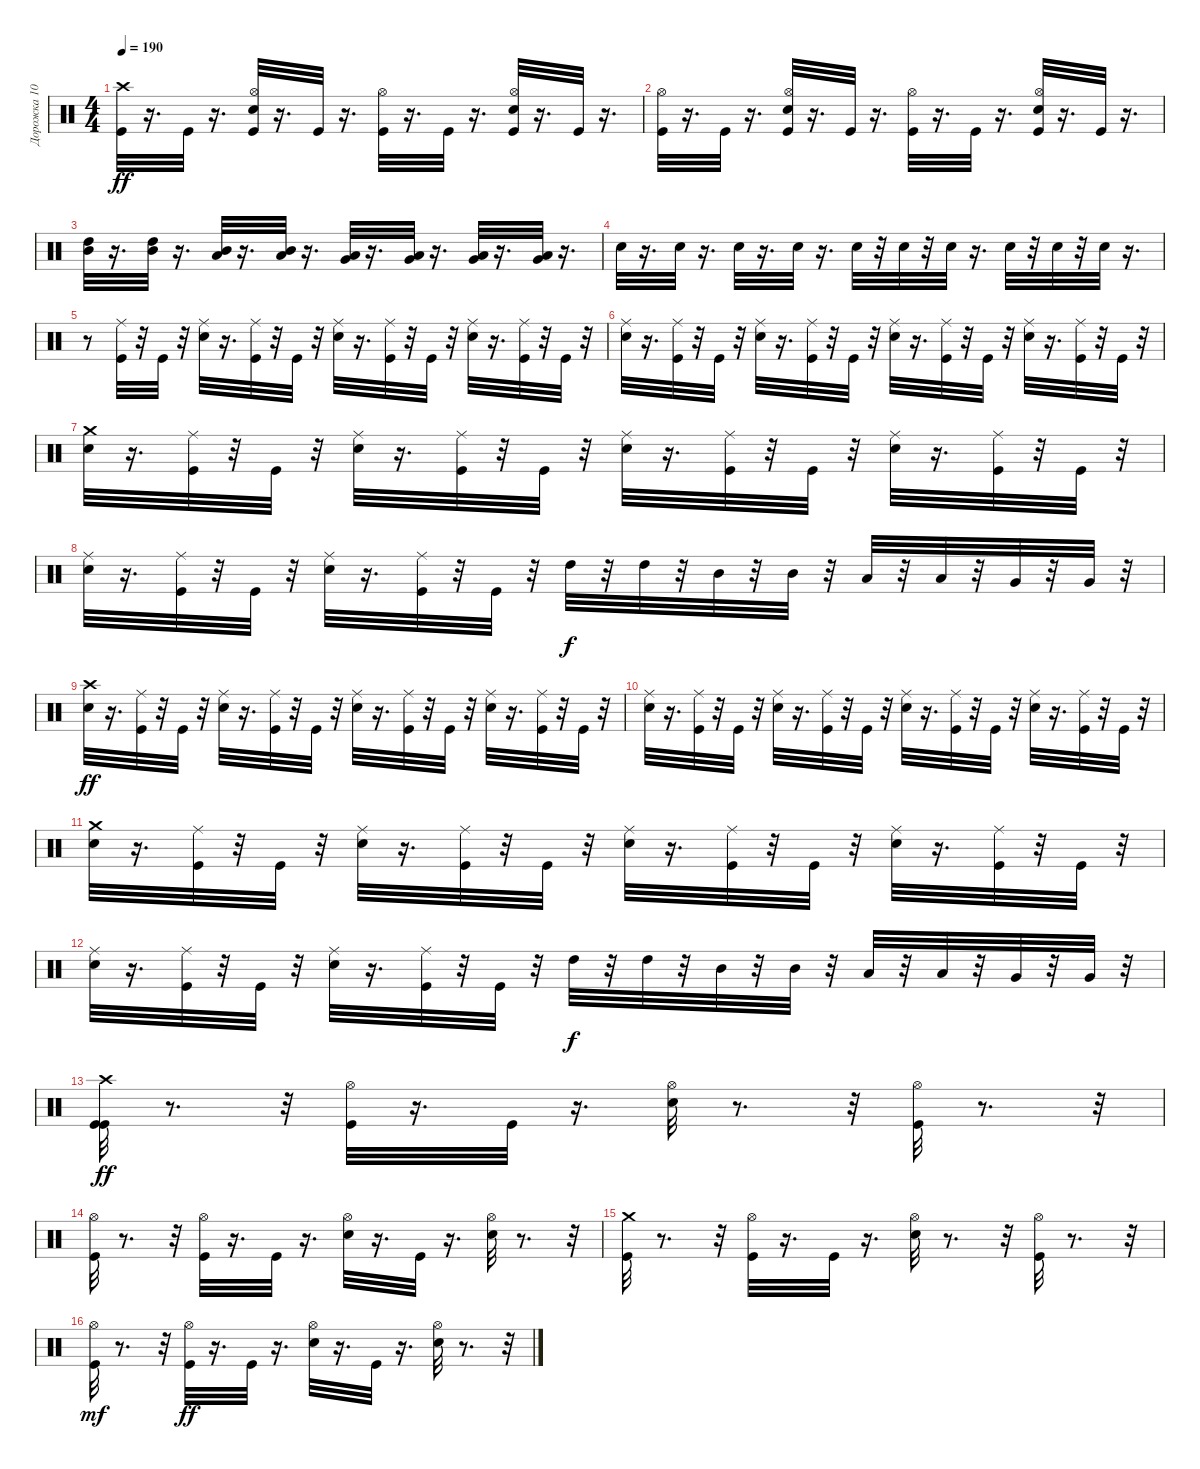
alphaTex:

\track ("Дорожка 10" "Дорожка 10") {instrument percussion}
\staff {score}
\articulation defaults
\ts (4 4)
\tempo 190
\clef neutral
\ks c
("Crash high (hit)" "Kick (hit)").32{dy ff} r.16{d} "Kick (hit)".32 r.16{d} ("Hi-Hat (open)" "Kick (hit)" "Snare (hit) 2").32 r.16{d} "Kick (hit)".32 r.16{d} ("Hi-Hat (open)" "Kick (hit)").32 r.16{d} "Kick (hit)".32 r.16{d} ("Hi-Hat (open)" "Snare (hit) 2" "Kick (hit)").32 r.16{d} "Kick (hit)".32 r.16{d} |
("Hi-Hat (open)" "Kick (hit)").32 r.16{d} "Kick (hit)".32 r.16{d} ("Hi-Hat (open)" "Snare (hit) 2" "Kick (hit)").32 r.16{d} "Kick (hit)".32 r.16{d} ("Hi-Hat (open)" "Kick (hit)").32 r.16{d} "Kick (hit)".32 r.16{d} ("Hi-Hat (open)" "Snare (hit) 2" "Kick (hit)").32 r.16{d} "Kick (hit)".32 r.16{d} |
("Mid Tom (hit)" "High Tom (hit)").32 r.16{d} ("Mid Tom (hit)" "High Tom (hit)").32 r.16{d} ("Low Tom (hit)" "Mid Tom (hit)").32 r.16{d} ("Mid Tom (hit)" "Low Tom (hit)").32 r.16{d} ("Very Low Tom (hit)" "Low Tom (hit)").32 r.16{d} ("Very Low Tom (hit)" "Low Tom (hit)").32 r.16{d} ("Very Low Tom (hit)" "Low Tom (hit)").32 r.16{d} ("Very Low Tom (hit)" "Low Tom (hit)").32 r.16{d} |
"Snare (hit) 2".32 r.16{d} "Snare (hit) 2".32 r.16{d} "Snare (hit) 2".32 r.16{d} "Snare (hit) 2".32 r.16{d} "Snare (hit) 2".32 r.32 "Snare (hit) 2".32 r.32 "Snare (hit) 2".32 r.16{d} "Snare (hit) 2".32 r.32 "Snare (hit) 2".32 r.32 "Snare (hit) 2".32 r.16{d} |
r.8 ("Ride (middle)" "Kick (hit)").32 r.32 "Kick (hit)".32 r.32 ("Ride (middle)" "Snare (hit) 2").32 r.16{d} ("Ride (middle)" "Kick (hit)").32 r.32 "Kick (hit)".32 r.32 ("Ride (middle)" "Snare (hit) 2").32 r.16{d} ("Kick (hit)" "Ride (middle)").32 r.32 "Kick (hit)".32 r.32 ("Ride (middle)" "Snare (hit) 2").32 r.16{d} ("Ride (middle)" "Kick (hit)").32 r.32 "Kick (hit)".32 r.32 |
("Snare (hit) 2" "Ride (middle)").32 r.16{d} ("Ride (middle)" "Kick (hit)").32 r.32 "Kick (hit)".32 r.32 ("Ride (middle)" "Snare (hit) 2").32 r.16{d} ("Ride (middle)" "Kick (hit)").32 r.32 "Kick (hit)".32 r.32 ("Ride (middle)" "Snare (hit) 2").32 r.16{d} ("Ride (middle)" "Kick (hit)").32 r.32 "Kick (hit)".32 r.32 ("Ride (middle)" "Snare (hit) 2").32 r.16{d} ("Ride (middle)" "Kick (hit)").32 r.32 "Kick (hit)".32 r.32 |
("Crash medium (hit)" "Snare (hit) 2").32 r.16{d} ("Ride (middle)" "Kick (hit)").32 r.32 "Kick (hit)".32 r.32 ("Ride (middle)" "Snare (hit) 2").32 r.16{d} ("Ride (middle)" "Kick (hit)").32 r.32 "Kick (hit)".32 r.32 ("Ride (middle)" "Snare (hit) 2").32 r.16{d} ("Ride (middle)" "Kick (hit)").32 r.32 "Kick (hit)".32 r.32 ("Ride (middle)" "Snare (hit) 2").32 r.16{d} ("Ride (middle)" "Kick (hit)").32 r.32 "Kick (hit)".32 r.32 |
("Ride (middle)" "Snare (hit) 2").32 r.16{d} ("Ride (middle)" "Kick (hit)").32 r.32 "Kick (hit)".32 r.32 ("Ride (middle)" "Snare (hit) 2").32 r.16{d} ("Ride (middle)" "Kick (hit)").32 r.32 "Kick (hit)".32 r.32 "High Tom (hit)".32{dy f} r.32 "High Tom (hit)".32 r.32 "Mid Tom (hit)".32 r.32 "Mid Tom (hit)".32 r.32 "Low Tom (hit)".32 r.32 "Low Tom (hit)".32 r.32 "Very Low Tom (hit)".32 r.32 "Very Low Tom (hit)".32 r.32 |
("Snare (hit) 2" "Crash high (hit)").32{dy ff} r.16{d} ("Ride (middle)" "Kick (hit)").32 r.32 "Kick (hit)".32 r.32 ("Ride (middle)" "Snare (hit) 2").32 r.16{d} ("Ride (middle)" "Kick (hit)").32 r.32 "Kick (hit)".32 r.32 ("Ride (middle)" "Snare (hit) 2").32 r.16{d} ("Kick (hit)" "Ride (middle)").32 r.32 "Kick (hit)".32 r.32 ("Ride (middle)" "Snare (hit) 2").32 r.16{d} ("Ride (middle)" "Kick (hit)").32 r.32 "Kick (hit)".32 r.32 |
("Snare (hit) 2" "Ride (middle)").32 r.16{d} ("Ride (middle)" "Kick (hit)").32 r.32 "Kick (hit)".32 r.32 ("Ride (middle)" "Snare (hit) 2").32 r.16{d} ("Ride (middle)" "Kick (hit)").32 r.32 "Kick (hit)".32 r.32 ("Ride (middle)" "Snare (hit) 2").32 r.16{d} ("Ride (middle)" "Kick (hit)").32 r.32 "Kick (hit)".32 r.32 ("Ride (middle)" "Snare (hit) 2").32 r.16{d} ("Ride (middle)" "Kick (hit)").32 r.32 "Kick (hit)".32 r.32 |
("Crash medium (hit)" "Snare (hit) 2").32 r.16{d} ("Ride (middle)" "Kick (hit)").32 r.32 "Kick (hit)".32 r.32 ("Ride (middle)" "Snare (hit) 2").32 r.16{d} ("Ride (middle)" "Kick (hit)").32 r.32 "Kick (hit)".32 r.32 ("Ride (middle)" "Snare (hit) 2").32 r.16{d} ("Ride (middle)" "Kick (hit)").32 r.32 "Kick (hit)".32 r.32 ("Ride (middle)" "Snare (hit) 2").32 r.16{d} ("Ride (middle)" "Kick (hit)").32 r.32 "Kick (hit)".32 r.32 |
("Ride (middle)" "Snare (hit) 2").32 r.16{d} ("Ride (middle)" "Kick (hit)").32 r.32 "Kick (hit)".32 r.32 ("Ride (middle)" "Snare (hit) 2").32 r.16{d} ("Ride (middle)" "Kick (hit)").32 r.32 "Kick (hit)".32 r.32 "High Tom (hit)".32{dy f} r.32 "High Tom (hit)".32 r.32 "Mid Tom (hit)".32 r.32 "Mid Tom (hit)".32 r.32 "Low Tom (hit)".32 r.32 "Low Tom (hit)".32 r.32 "Very Low Tom (hit)".32 r.32 "Very Low Tom (hit)".32 r.32 |
("Kick (hit)" "Crash high (hit)" "Kick (hit)").32{dy ff} r.8{d} r.32 ("Hi-Hat (open)" "Kick (hit)").32 r.16{d} "Kick (hit)".32 r.16{d} ("Hi-Hat (open)" "Snare (hit) 2").32 r.8{d} r.32 ("Hi-Hat (open)" "Kick (hit)").32 r.8{d} r.32 |
("Hi-Hat (open)" "Kick (hit)").32 r.8{d} r.32 ("Hi-Hat (open)" "Kick (hit)").32 r.16{d} "Kick (hit)".32 r.16{d} ("Hi-Hat (open)" "Snare (hit) 2").32 r.16{d} "Kick (hit)".32 r.16{d} ("Hi-Hat (open)" "Snare (hit) 2").32 r.8{d} r.32 |
("Kick (hit)" "Crash medium (hit)").32 r.8{d} r.32 ("Hi-Hat (open)" "Kick (hit)").32 r.16{d} "Kick (hit)".32 r.16{d} ("Hi-Hat (open)" "Snare (hit) 2").32 r.8{d} r.32 ("Hi-Hat (open)" "Kick (hit)").32 r.8{d} r.32 |
("Kick (hit)" "Hi-Hat (open)").32{dy mf} r.8{d} r.32 ("Hi-Hat (open)" "Kick (hit)").32{dy ff} r.16{d} "Kick (hit)".32 r.16{d} ("Hi-Hat (open)" "Snare (hit) 2").32 r.16{d} "Kick (hit)".32 r.16{d} ("Hi-Hat (open)" "Snare (hit) 2").32 r.8{d} r.32
